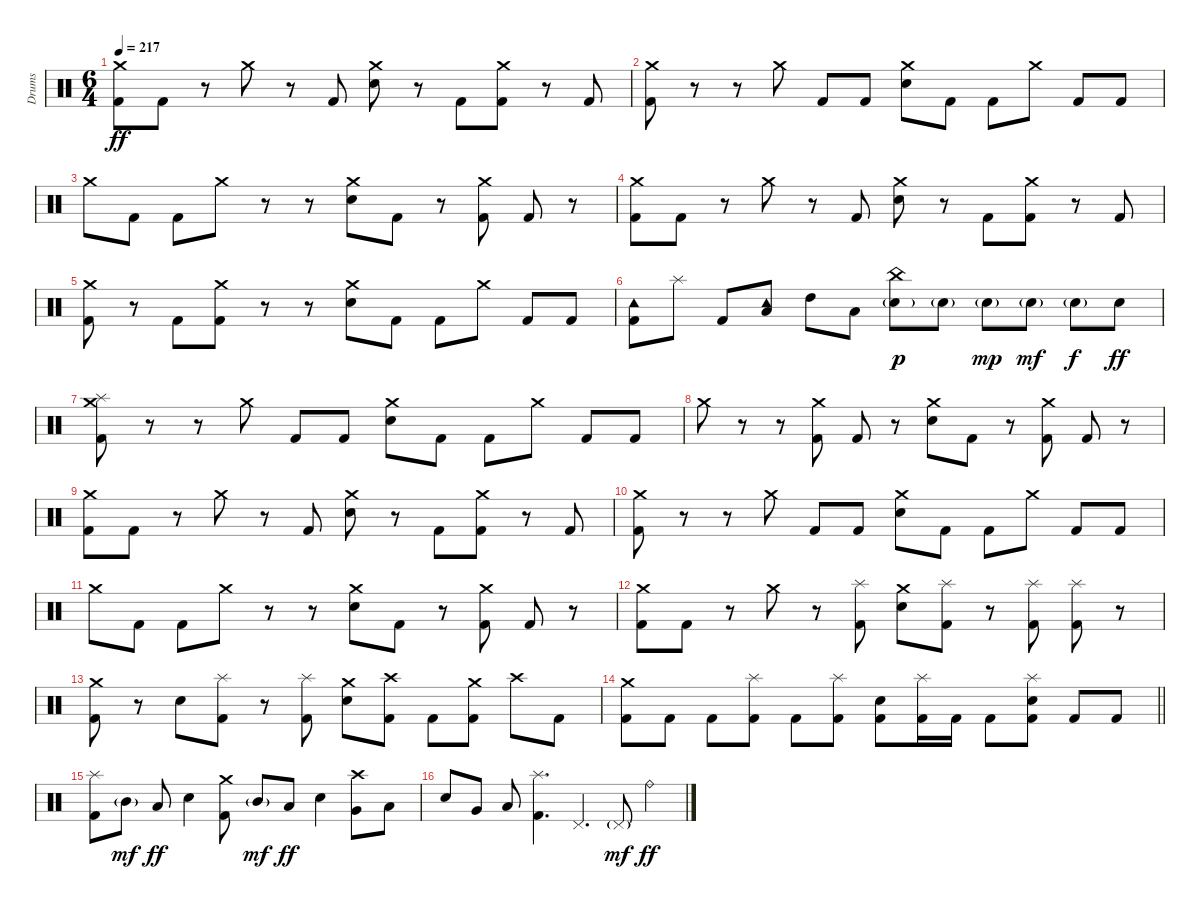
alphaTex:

\track ("Drums" "Drums") {instrument percussion}
\staff {score}
\articulation defaults
\ts (6 4)
\tempo 217
\clef neutral
\ks c
("Crash medium (hit)" "Kick (hit) 2").8{dy ff} "Kick (hit) 2".8 r.8 "Crash medium (hit)".8 r.8 "Kick (hit) 2".8 ("Crash medium (hit)" "Electric Snare (hit)").8 r.8 "Kick (hit) 2".8 ("Crash medium (hit)" "Kick (hit) 2").8 r.8 "Kick (hit) 2".8 |
("Crash medium (hit)" "Kick (hit) 2").8 r.8 r.8 "Crash medium (hit)".8 "Kick (hit) 2".8 "Kick (hit) 2".8 ("Crash medium (hit)" "Electric Snare (hit)").8 "Kick (hit) 2".8 "Kick (hit) 2".8 "Crash medium (hit)".8 "Kick (hit) 2".8 "Kick (hit) 2".8 |
"Crash medium (hit)".8 "Kick (hit) 2".8 "Kick (hit) 2".8 "Crash medium (hit)".8 r.8 r.8 ("Crash medium (hit)" "Electric Snare (hit)").8 "Kick (hit) 2".8 r.8 ("Crash medium (hit)" "Kick (hit) 2").8 "Kick (hit) 2".8 r.8 |
("Crash medium (hit)" "Kick (hit) 2").8 "Kick (hit) 2".8 r.8 "Crash medium (hit)".8 r.8 "Kick (hit) 2".8 ("Crash medium (hit)" "Electric Snare (hit)").8 r.8 "Kick (hit) 2".8 ("Crash medium (hit)" "Kick (hit) 2").8 r.8 "Kick (hit) 2".8 |
("Crash medium (hit)" "Kick (hit) 2").8 r.8 "Kick (hit) 2".8 ("Crash medium (hit)" "Kick (hit) 2").8 r.8 r.8 ("Crash medium (hit)" "Electric Snare (hit)").8 "Kick (hit) 2".8 "Kick (hit) 2".8 "Crash medium (hit)".8 "Kick (hit) 2".8 "Kick (hit) 2".8 |
("Tambourine (hit)" "Kick (hit) 2").8 "Splash (hit)".8 "Kick (hit) 2".8 ("Tambourine (hit)" "Low Tom (hit)").8 "High Tom (hit)".8 "Low Tom (hit)".8 ("China (hit)" "Electric Snare (hit)"{g}).8{dy p} "Electric Snare (hit)"{g}.8 "Electric Snare (hit)"{g}.8{dy mp} "Electric Snare (hit)"{g}.8{dy mf} "Electric Snare (hit)"{g}.8{dy f} "Electric Snare (hit)".8{dy ff} |
("Crash medium (hit)" "Splash (hit)" "Kick (hit) 2").8 r.8 r.8 "Crash medium (hit)".8 "Kick (hit) 2".8 "Kick (hit) 2".8 ("Crash medium (hit)" "Electric Snare (hit)").8 "Kick (hit) 2".8 "Kick (hit) 2".8 "Crash medium (hit)".8 "Kick (hit) 2".8 "Kick (hit) 2".8 |
"Crash medium (hit)".8 r.8 r.8 ("Crash medium (hit)" "Kick (hit) 2").8 "Kick (hit) 2".8 r.8 ("Crash medium (hit)" "Electric Snare (hit)").8 "Kick (hit) 2".8 r.8 ("Crash medium (hit)" "Kick (hit) 2").8 "Kick (hit) 2".8 r.8 |
("Crash medium (hit)" "Kick (hit) 2").8 "Kick (hit) 2".8 r.8 "Crash medium (hit)".8 r.8 "Kick (hit) 2".8 ("Crash medium (hit)" "Electric Snare (hit)").8 r.8 "Kick (hit) 2".8 ("Crash medium (hit)" "Kick (hit) 2").8 r.8 "Kick (hit) 2".8 |
("Crash medium (hit)" "Kick (hit) 2").8 r.8 r.8 "Crash medium (hit)".8 "Kick (hit) 2".8 "Kick (hit) 2".8 ("Crash medium (hit)" "Electric Snare (hit)").8 "Kick (hit) 2".8 "Kick (hit) 2".8 "Crash medium (hit)".8 "Kick (hit) 2".8 "Kick (hit) 2".8 |
"Crash medium (hit)".8 "Kick (hit) 2".8 "Kick (hit) 2".8 "Crash medium (hit)".8 r.8 r.8 ("Crash medium (hit)" "Electric Snare (hit)").8 "Kick (hit) 2".8 r.8 ("Crash medium (hit)" "Kick (hit) 2").8 "Kick (hit) 2".8 r.8 |
("Crash medium (hit)" "Kick (hit) 2").8 "Kick (hit) 2".8 r.8 "Crash medium (hit)".8 r.8 ("Splash (hit)" "Kick (hit) 2").8 ("Crash medium (hit)" "Electric Snare (hit)").8 ("Splash (hit)" "Kick (hit) 2").8 r.8 ("Splash (hit)" "Kick (hit) 2").8 ("Splash (hit)" "Kick (hit) 2").8 r.8 |
("Crash medium (hit)" "Kick (hit) 2").8 r.8 "Electric Snare (hit)".8 ("Splash (hit)" "Kick (hit) 2").8 r.8 ("Splash (hit)" "Kick (hit) 2").8 ("Crash medium (hit)" "Electric Snare (hit)").8 ("Crash high (hit)" "Kick (hit) 2").8 "Kick (hit) 2".8 ("Crash medium (hit)" "Kick (hit) 2").8 "Crash high (hit)".8 "Kick (hit) 2".8 |
\barLineRight lightlight
("Crash medium (hit)" "Kick (hit) 2").8 "Kick (hit) 2".8 "Kick (hit) 2".8 ("Splash (hit)" "Kick (hit) 2").8 "Kick (hit) 2".8 ("Splash (hit)" "Kick (hit) 2").8 ("Electric Snare (hit)" "Kick (hit) 2").8 ("Splash (hit)" "Kick (hit) 2").16 "Kick (hit) 2".16 "Kick (hit) 2".8 ("Splash (hit)" "Electric Snare (hit)" "Kick (hit) 2").8 "Kick (hit) 2".8 "Kick (hit) 2".8 |
\section ("" "")
("Splash (hit)" "Kick (hit) 2").8 "Mid Tom (hit)"{g}.8{dy mf} "Low Tom (hit)".8{dy ff} "Electric Snare (hit)".4 ("Crash medium (hit)" "Kick (hit) 2").8 "Mid Tom (hit)"{g}.8{dy mf} "Low Tom (hit)".8{dy ff} "Electric Snare (hit)".4 ("Crash high (hit)" "Very Low Tom (hit)").8 "Low Tom (hit)".8 |
"Electric Snare (hit)".8 "Very Low Tom (hit)".8 "Low Floor Tom (hit)".8 ("Splash (hit)" "Kick (hit) 2").4{d} "Pedal Hi-Hat (hit)".4{d} "Pedal Hi-Hat (hit)"{g}.8{dy mf} "Ride (bell)".4{dy ff}
